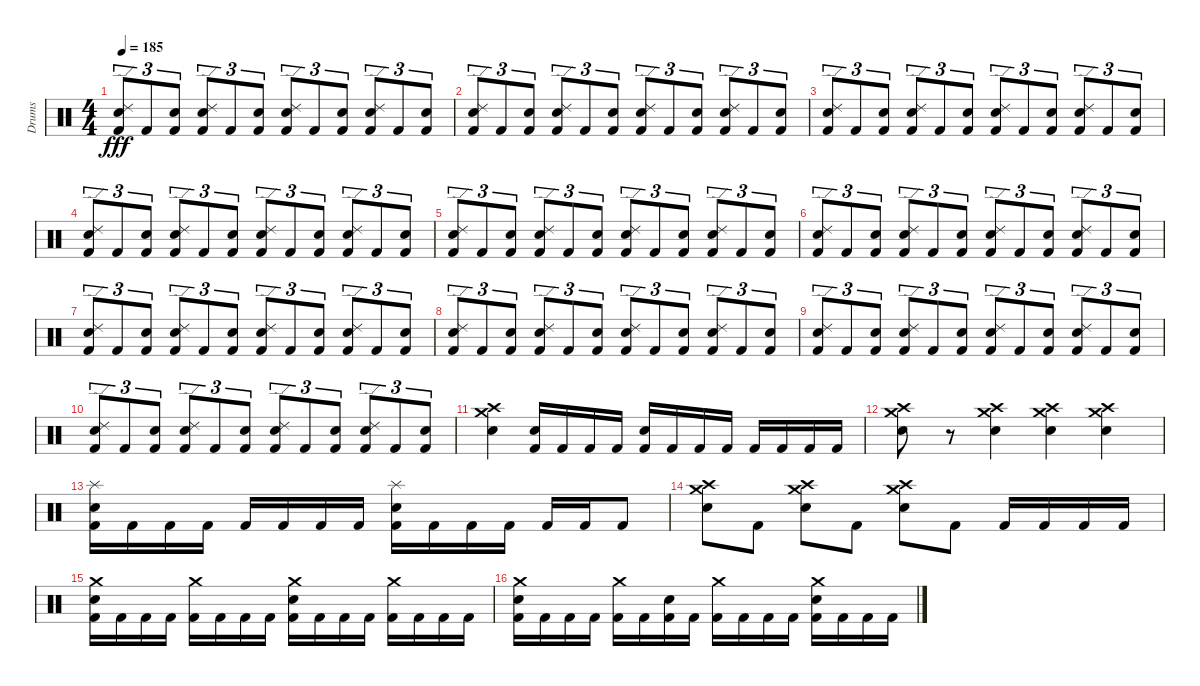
\track ("Drums" "Drums") {instrument percussion}
\staff {score}
\articulation defaults
\ts (4 4)
\tempo 185
\clef neutral
\ks c
("Ride (edge) 2" "Electric Snare (hit)" "Kick (hit) 2").8{tu (3 2) dy fff} "Kick (hit) 2".8{tu (3 2)} ("Snare (hit) 2" "Kick (hit) 2").8{tu (3 2)} ("Ride (edge) 2" "Electric Snare (hit)" "Kick (hit) 2").8{tu (3 2)} "Kick (hit) 2".8{tu (3 2)} ("Snare (hit) 2" "Kick (hit) 2").8{tu (3 2)} ("Ride (edge) 2" "Electric Snare (hit)" "Kick (hit) 2").8{tu (3 2)} "Kick (hit) 2".8{tu (3 2)} ("Snare (hit) 2" "Kick (hit) 2").8{tu (3 2)} ("Ride (edge) 2" "Electric Snare (hit)" "Kick (hit) 2").8{tu (3 2)} "Kick (hit) 2".8{tu (3 2)} ("Snare (hit) 2" "Kick (hit) 2").8{tu (3 2)} |
("Ride (edge) 2" "Electric Snare (hit)" "Kick (hit) 2").8{tu (3 2)} "Kick (hit) 2".8{tu (3 2)} ("Snare (hit) 2" "Kick (hit) 2").8{tu (3 2)} ("Ride (edge) 2" "Electric Snare (hit)" "Kick (hit) 2").8{tu (3 2)} "Kick (hit) 2".8{tu (3 2)} ("Snare (hit) 2" "Kick (hit) 2").8{tu (3 2)} ("Ride (edge) 2" "Electric Snare (hit)" "Kick (hit) 2").8{tu (3 2)} "Kick (hit) 2".8{tu (3 2)} ("Snare (hit) 2" "Kick (hit) 2").8{tu (3 2)} ("Ride (edge) 2" "Electric Snare (hit)" "Kick (hit) 2").8{tu (3 2)} "Kick (hit) 2".8{tu (3 2)} ("Snare (hit) 2" "Kick (hit) 2").8{tu (3 2)} |
("Ride (edge) 2" "Electric Snare (hit)" "Kick (hit) 2").8{tu (3 2)} "Kick (hit) 2".8{tu (3 2)} ("Snare (hit) 2" "Kick (hit) 2").8{tu (3 2)} ("Ride (edge) 2" "Electric Snare (hit)" "Kick (hit) 2").8{tu (3 2)} "Kick (hit) 2".8{tu (3 2)} ("Snare (hit) 2" "Kick (hit) 2").8{tu (3 2)} ("Ride (edge) 2" "Electric Snare (hit)" "Kick (hit) 2").8{tu (3 2)} "Kick (hit) 2".8{tu (3 2)} ("Snare (hit) 2" "Kick (hit) 2").8{tu (3 2)} ("Ride (edge) 2" "Electric Snare (hit)" "Kick (hit) 2").8{tu (3 2)} "Kick (hit) 2".8{tu (3 2)} ("Snare (hit) 2" "Kick (hit) 2").8{tu (3 2)} |
("Ride (edge) 2" "Electric Snare (hit)" "Kick (hit) 2").8{tu (3 2)} "Kick (hit) 2".8{tu (3 2)} ("Snare (hit) 2" "Kick (hit) 2").8{tu (3 2)} ("Ride (edge) 2" "Electric Snare (hit)" "Kick (hit) 2").8{tu (3 2)} "Kick (hit) 2".8{tu (3 2)} ("Snare (hit) 2" "Kick (hit) 2").8{tu (3 2)} ("Ride (edge) 2" "Electric Snare (hit)" "Kick (hit) 2").8{tu (3 2)} "Kick (hit) 2".8{tu (3 2)} ("Snare (hit) 2" "Kick (hit) 2").8{tu (3 2)} ("Ride (edge) 2" "Electric Snare (hit)" "Kick (hit) 2").8{tu (3 2)} "Kick (hit) 2".8{tu (3 2)} ("Snare (hit) 2" "Kick (hit) 2").8{tu (3 2)} |
("Ride (edge) 2" "Electric Snare (hit)" "Kick (hit) 2").8{tu (3 2)} "Kick (hit) 2".8{tu (3 2)} ("Snare (hit) 2" "Kick (hit) 2").8{tu (3 2)} ("Ride (edge) 2" "Electric Snare (hit)" "Kick (hit) 2").8{tu (3 2)} "Kick (hit) 2".8{tu (3 2)} ("Snare (hit) 2" "Kick (hit) 2").8{tu (3 2)} ("Ride (edge) 2" "Electric Snare (hit)" "Kick (hit) 2").8{tu (3 2)} "Kick (hit) 2".8{tu (3 2)} ("Snare (hit) 2" "Kick (hit) 2").8{tu (3 2)} ("Ride (edge) 2" "Electric Snare (hit)" "Kick (hit) 2").8{tu (3 2)} "Kick (hit) 2".8{tu (3 2)} ("Snare (hit) 2" "Kick (hit) 2").8{tu (3 2)} |
("Ride (edge) 2" "Electric Snare (hit)" "Kick (hit) 2").8{tu (3 2)} "Kick (hit) 2".8{tu (3 2)} ("Snare (hit) 2" "Kick (hit) 2").8{tu (3 2)} ("Ride (edge) 2" "Electric Snare (hit)" "Kick (hit) 2").8{tu (3 2)} "Kick (hit) 2".8{tu (3 2)} ("Snare (hit) 2" "Kick (hit) 2").8{tu (3 2)} ("Ride (edge) 2" "Electric Snare (hit)" "Kick (hit) 2").8{tu (3 2)} "Kick (hit) 2".8{tu (3 2)} ("Snare (hit) 2" "Kick (hit) 2").8{tu (3 2)} ("Ride (edge) 2" "Electric Snare (hit)" "Kick (hit) 2").8{tu (3 2)} "Kick (hit) 2".8{tu (3 2)} ("Snare (hit) 2" "Kick (hit) 2").8{tu (3 2)} |
("Ride (edge) 2" "Electric Snare (hit)" "Kick (hit) 2").8{tu (3 2)} "Kick (hit) 2".8{tu (3 2)} ("Snare (hit) 2" "Kick (hit) 2").8{tu (3 2)} ("Ride (edge) 2" "Electric Snare (hit)" "Kick (hit) 2").8{tu (3 2)} "Kick (hit) 2".8{tu (3 2)} ("Snare (hit) 2" "Kick (hit) 2").8{tu (3 2)} ("Ride (edge) 2" "Electric Snare (hit)" "Kick (hit) 2").8{tu (3 2)} "Kick (hit) 2".8{tu (3 2)} ("Snare (hit) 2" "Kick (hit) 2").8{tu (3 2)} ("Ride (edge) 2" "Electric Snare (hit)" "Kick (hit) 2").8{tu (3 2)} "Kick (hit) 2".8{tu (3 2)} ("Snare (hit) 2" "Kick (hit) 2").8{tu (3 2)} |
("Ride (edge) 2" "Electric Snare (hit)" "Kick (hit) 2").8{tu (3 2)} "Kick (hit) 2".8{tu (3 2)} ("Snare (hit) 2" "Kick (hit) 2").8{tu (3 2)} ("Ride (edge) 2" "Electric Snare (hit)" "Kick (hit) 2").8{tu (3 2)} "Kick (hit) 2".8{tu (3 2)} ("Snare (hit) 2" "Kick (hit) 2").8{tu (3 2)} ("Ride (edge) 2" "Electric Snare (hit)" "Kick (hit) 2").8{tu (3 2)} "Kick (hit) 2".8{tu (3 2)} ("Snare (hit) 2" "Kick (hit) 2").8{tu (3 2)} ("Ride (edge) 2" "Electric Snare (hit)" "Kick (hit) 2").8{tu (3 2)} "Kick (hit) 2".8{tu (3 2)} ("Snare (hit) 2" "Kick (hit) 2").8{tu (3 2)} |
("Ride (edge) 2" "Electric Snare (hit)" "Kick (hit) 2").8{tu (3 2)} "Kick (hit) 2".8{tu (3 2)} ("Snare (hit) 2" "Kick (hit) 2").8{tu (3 2)} ("Ride (edge) 2" "Electric Snare (hit)" "Kick (hit) 2").8{tu (3 2)} "Kick (hit) 2".8{tu (3 2)} ("Snare (hit) 2" "Kick (hit) 2").8{tu (3 2)} ("Ride (edge) 2" "Electric Snare (hit)" "Kick (hit) 2").8{tu (3 2)} "Kick (hit) 2".8{tu (3 2)} ("Snare (hit) 2" "Kick (hit) 2").8{tu (3 2)} ("Ride (edge) 2" "Electric Snare (hit)" "Kick (hit) 2").8{tu (3 2)} "Kick (hit) 2".8{tu (3 2)} ("Snare (hit) 2" "Kick (hit) 2").8{tu (3 2)} |
("Ride (edge) 2" "Electric Snare (hit)" "Kick (hit) 2").8{tu (3 2)} "Kick (hit) 2".8{tu (3 2)} ("Snare (hit) 2" "Kick (hit) 2").8{tu (3 2)} ("Ride (edge) 2" "Electric Snare (hit)" "Kick (hit) 2").8{tu (3 2)} "Kick (hit) 2".8{tu (3 2)} ("Snare (hit) 2" "Kick (hit) 2").8{tu (3 2)} ("Ride (edge) 2" "Electric Snare (hit)" "Kick (hit) 2").8{tu (3 2)} "Kick (hit) 2".8{tu (3 2)} ("Snare (hit) 2" "Kick (hit) 2").8{tu (3 2)} ("Ride (edge) 2" "Electric Snare (hit)" "Kick (hit) 2").8{tu (3 2)} "Kick (hit) 2".8{tu (3 2)} ("Snare (hit) 2" "Kick (hit) 2").8{tu (3 2)} |
("Crash high (hit)" "Crash medium (hit)" "Electric Snare (hit)").4 ("Electric Snare (hit)" "Kick (hit) 2").16 "Kick (hit) 2".16 "Kick (hit) 2".16 "Kick (hit) 2".16 ("Electric Snare (hit)" "Kick (hit) 2").16 "Kick (hit) 2".16 "Kick (hit) 2".16 "Kick (hit) 2".16 "Kick (hit) 2".16 "Kick (hit) 2".16 "Kick (hit) 2".16 "Kick (hit) 2".16 |
("Electric Snare (hit)" "Crash high (hit)" "Crash medium (hit)").8 r.8 ("Electric Snare (hit)" "Crash high (hit)" "Crash medium (hit)").4 ("Electric Snare (hit)" "Crash high (hit)" "Crash medium (hit)").4 ("Electric Snare (hit)" "Crash high (hit)" "Crash medium (hit)").4 |
("Kick (hit) 2" "Electric Snare (hit)" "Splash (hit)").16 "Kick (hit) 2".16 "Kick (hit) 2".16 "Kick (hit) 2".16 "Kick (hit) 2".16 "Kick (hit) 2".16 "Kick (hit) 2".16 "Kick (hit) 2".16 ("Kick (hit) 2" "Electric Snare (hit)" "Splash (hit)").16 "Kick (hit) 2".16 "Kick (hit) 2".16 "Kick (hit) 2".16 "Kick (hit) 2".16 "Kick (hit) 2".16 "Kick (hit) 2".8 |
("Electric Snare (hit)" "Crash medium (hit)" "Crash high (hit)").8 "Kick (hit) 2".8 ("Electric Snare (hit)" "Crash medium (hit)" "Crash high (hit)").8 "Kick (hit) 2".8 ("Electric Snare (hit)" "Crash medium (hit)" "Crash high (hit)").8 "Kick (hit) 2".8 "Kick (hit) 2".16 "Kick (hit) 2".16 "Kick (hit) 2".16 "Kick (hit) 2".16 |
("Crash medium (hit)" "Electric Snare (hit)" "Kick (hit) 2").16 "Kick (hit) 2".16 "Kick (hit) 2".16 "Kick (hit) 2".16 ("Crash medium (hit)" "Kick (hit) 2").16 "Kick (hit) 2".16 "Kick (hit) 2".16 "Kick (hit) 2".16 ("Crash medium (hit)" "Electric Snare (hit)" "Kick (hit) 2").16 "Kick (hit) 2".16 "Kick (hit) 2".16 "Kick (hit) 2".16 ("Crash medium (hit)" "Kick (hit) 2").16 "Kick (hit) 2".16 "Kick (hit) 2".16 "Kick (hit) 2".16 |
("Crash medium (hit)" "Electric Snare (hit)" "Kick (hit) 2").16 "Kick (hit) 2".16 "Kick (hit) 2".16 "Kick (hit) 2".16 ("Crash medium (hit)" "Kick (hit) 2").16 "Kick (hit) 2".16 ("Electric Snare (hit)" "Kick (hit) 2").16 "Kick (hit) 2".16 ("Crash medium (hit)" "Kick (hit) 2").16 "Kick (hit) 2".16 "Kick (hit) 2".16 "Kick (hit) 2".16 ("Crash medium (hit)" "Electric Snare (hit)" "Kick (hit) 2").16 "Kick (hit) 2".16 "Kick (hit) 2".16 "Kick (hit) 2".16
